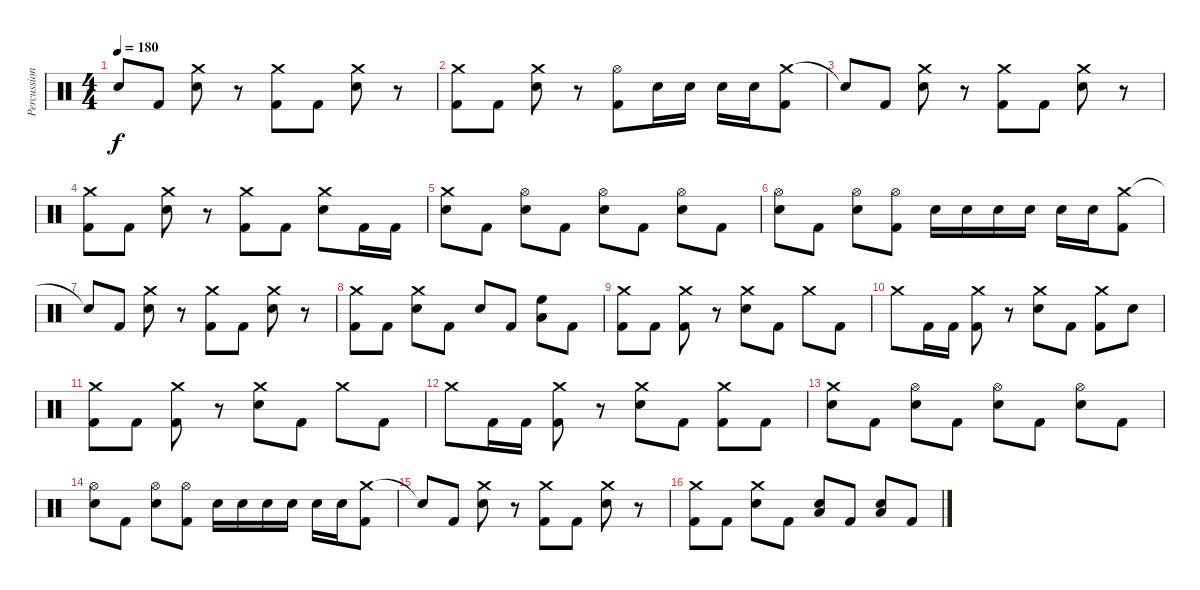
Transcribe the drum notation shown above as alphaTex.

\track ("Percussion" "Percussion") {instrument percussion}
\staff {score}
\articulation defaults
\ts (4 4)
\tempo 180
\clef neutral
\ks c "Snare (hit)"{t}.8{dy f} "Kick (hit) 2".8
("Crash medium (hit)" "Snare (hit) 2").8 r.8 ("Crash medium (hit)" "Kick (hit) 2").8 "Kick (hit) 2".8 ("Crash medium (hit)" "Snare (hit) 2").8 r.8 |
("Crash medium (hit)" "Kick (hit) 2").8 "Kick (hit) 2".8 ("Crash medium (hit)" "Snare (hit) 2").8 r.8 ("Hi-Hat (open)" "Kick (hit) 2").8 "Snare (hit) 2".16 "Snare (hit) 2".16 "Snare (hit) 2".16 "Snare (hit) 2".16 ("Crash medium (hit)" "Kick (hit) 2").8 |
"Snare (hit)"{t}.8 "Kick (hit) 2".8 ("Crash medium (hit)" "Snare (hit) 2").8 r.8 ("Crash medium (hit)" "Kick (hit) 2").8 "Kick (hit) 2".8 ("Crash medium (hit)" "Snare (hit) 2").8 r.8 |
("Crash medium (hit)" "Kick (hit) 2").8 "Kick (hit) 2".8 ("Crash medium (hit)" "Snare (hit) 2").8 r.8 ("Crash medium (hit)" "Kick (hit) 2").8 "Kick (hit) 2".8 ("Crash medium (hit)" "Snare (hit) 2").8 "Kick (hit) 2".16 "Kick (hit) 2".16 |
("Crash medium (hit)" "Snare (hit) 2").8 "Kick (hit) 2".8 ("Hi-Hat (open)" "Snare (hit) 2").8 "Kick (hit) 2".8 ("Hi-Hat (open)" "Snare (hit) 2").8 "Kick (hit) 2".8 ("Hi-Hat (open)" "Snare (hit) 2").8 "Kick (hit) 2".8 |
("Hi-Hat (open)" "Snare (hit) 2").8 "Kick (hit) 2".8 ("Hi-Hat (open)" "Snare (hit) 2").8 ("Hi-Hat (open)" "Kick (hit) 2").8 "Snare (hit) 2".16 "Snare (hit) 2".16 "Snare (hit) 2".16 "Snare (hit) 2".16 "Snare (hit) 2".16 "Snare (hit) 2".16 ("Crash medium (hit)" "Kick (hit) 2").8 |
"Snare (hit)"{t}.8 "Kick (hit) 2".8 ("Crash medium (hit)" "Snare (hit) 2").8 r.8 ("Crash medium (hit)" "Kick (hit) 2").8 "Kick (hit) 2".8 ("Crash medium (hit)" "Snare (hit) 2").8 r.8 |
("Crash medium (hit)" "Kick (hit) 2").8 "Kick (hit) 2".8 ("Crash medium (hit)" "Snare (hit) 2").8 "Kick (hit) 2".8 "Snare (hit) 2".8 "Kick (hit) 2".8 ("High Floor Tom (hit)" "Low Floor Tom (hit)").8 "Kick (hit) 2".8 |
("Crash medium (hit)" "Kick (hit) 2").8 "Kick (hit) 2".8 ("Crash medium (hit)" "Kick (hit) 2").8 r.8 ("Crash medium (hit)" "Snare (hit) 2").8 "Kick (hit) 2".8 "Crash medium (hit)".8 "Kick (hit) 2".8 |
"Crash medium (hit)".8 "Kick (hit) 2".16 "Kick (hit) 2".16 ("Crash medium (hit)" "Kick (hit) 2").8 r.8 ("Crash medium (hit)" "Snare (hit) 2").8 "Kick (hit) 2".8 ("Crash medium (hit)" "Kick (hit) 2").8 "Snare (hit) 2".8 |
("Crash medium (hit)" "Kick (hit) 2").8 "Kick (hit) 2".8 ("Crash medium (hit)" "Kick (hit) 2").8 r.8 ("Crash medium (hit)" "Snare (hit) 2").8 "Kick (hit) 2".8 "Crash medium (hit)".8 "Kick (hit) 2".8 |
"Crash medium (hit)".8 "Kick (hit) 2".16 "Kick (hit) 2".16 ("Crash medium (hit)" "Kick (hit) 2").8 r.8 ("Crash medium (hit)" "Snare (hit) 2").8 "Kick (hit) 2".8 ("Crash medium (hit)" "Kick (hit) 2").8 "Kick (hit) 2".8 |
("Crash medium (hit)" "Snare (hit) 2").8 "Kick (hit) 2".8 ("Hi-Hat (open)" "Snare (hit) 2").8 "Kick (hit) 2".8 ("Hi-Hat (open)" "Snare (hit) 2").8 "Kick (hit) 2".8 ("Hi-Hat (open)" "Snare (hit) 2").8 "Kick (hit) 2".8 |
("Hi-Hat (open)" "Snare (hit) 2").8 "Kick (hit) 2".8 ("Hi-Hat (open)" "Snare (hit) 2").8 ("Hi-Hat (open)" "Kick (hit) 2").8 "Snare (hit) 2".16 "Snare (hit) 2".16 "Snare (hit) 2".16 "Snare (hit) 2".16 "Snare (hit) 2".16 "Snare (hit) 2".16 ("Crash medium (hit)" "Kick (hit) 2").8 |
"Snare (hit)"{t}.8 "Kick (hit) 2".8 ("Crash medium (hit)" "Snare (hit) 2").8 r.8 ("Crash medium (hit)" "Kick (hit) 2").8 "Kick (hit) 2".8 ("Crash medium (hit)" "Snare (hit) 2").8 r.8 |
("Crash medium (hit)" "Kick (hit) 2").8 "Kick (hit) 2".8 ("Crash medium (hit)" "Snare (hit) 2").8 "Kick (hit) 2".8 ("Low Floor Tom (hit)" "Snare (hit) 2").8 "Kick (hit) 2".8 ("Low Floor Tom (hit)" "Snare (hit) 2").8 "Kick (hit) 2".8
